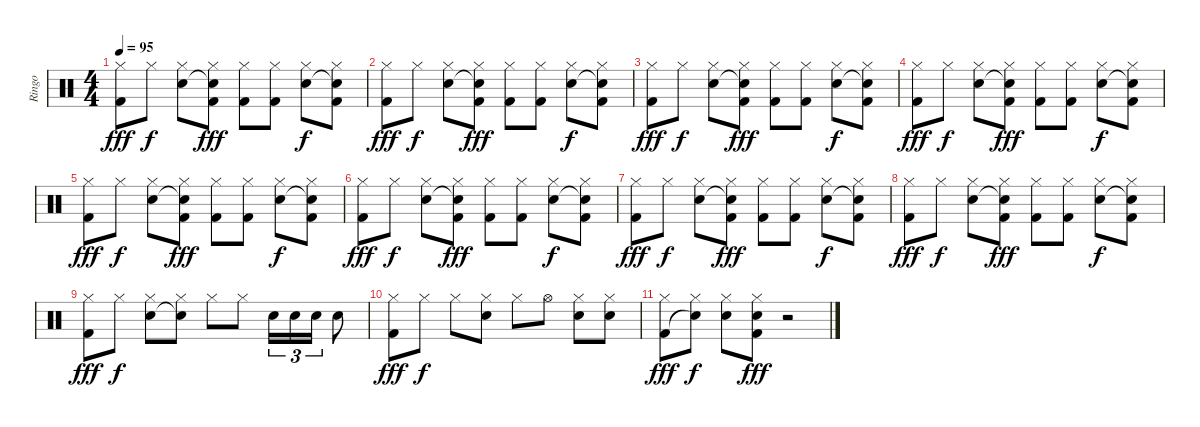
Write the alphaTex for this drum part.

\track ("Ringo" "Ringo") {instrument percussion}
\staff {score}
\articulation defaults
\ts (4 4)
\tempo 95
\clef neutral
\ks c
("Hi-Hat (closed)" "Kick (hit) 2").8{dy fff} "Hi-Hat (closed)".8{dy f} ("Hi-Hat (closed)" "Snare (hit) 2").8 ("Hi-Hat (closed)" "Snare (hit)"{t} "Kick (hit) 2").8{dy fff} ("Hi-Hat (closed)" "Kick (hit) 2").8 ("Hi-Hat (closed)" "Kick (hit) 2").8 ("Hi-Hat (closed)" "Snare (hit) 2").8{dy f} ("Hi-Hat (closed)" "Snare (hit)"{t} "Kick (hit) 2").8 |
("Hi-Hat (closed)" "Kick (hit) 2").8{dy fff} "Hi-Hat (closed)".8{dy f} ("Hi-Hat (closed)" "Snare (hit) 2").8 ("Hi-Hat (closed)" "Snare (hit)"{t} "Kick (hit) 2").8{dy fff} ("Hi-Hat (closed)" "Kick (hit) 2").8 ("Hi-Hat (closed)" "Kick (hit) 2").8 ("Hi-Hat (closed)" "Snare (hit) 2").8{dy f} ("Hi-Hat (closed)" "Snare (hit)"{t} "Kick (hit) 2").8 |
("Hi-Hat (closed)" "Kick (hit) 2").8{dy fff} "Hi-Hat (closed)".8{dy f} ("Hi-Hat (closed)" "Snare (hit) 2").8 ("Hi-Hat (closed)" "Snare (hit)"{t} "Kick (hit) 2").8{dy fff} ("Hi-Hat (closed)" "Kick (hit) 2").8 ("Hi-Hat (closed)" "Kick (hit) 2").8 ("Hi-Hat (closed)" "Snare (hit) 2").8{dy f} ("Hi-Hat (closed)" "Snare (hit)"{t} "Kick (hit) 2").8 |
("Hi-Hat (closed)" "Kick (hit) 2").8{dy fff} "Hi-Hat (closed)".8{dy f} ("Hi-Hat (closed)" "Snare (hit) 2").8 ("Hi-Hat (closed)" "Snare (hit)"{t} "Kick (hit) 2").8{dy fff} ("Hi-Hat (closed)" "Kick (hit) 2").8 ("Hi-Hat (closed)" "Kick (hit) 2").8 ("Hi-Hat (closed)" "Snare (hit) 2").8{dy f} ("Hi-Hat (closed)" "Snare (hit)"{t} "Kick (hit) 2").8 |
("Hi-Hat (closed)" "Kick (hit) 2").8{dy fff} "Hi-Hat (closed)".8{dy f} ("Hi-Hat (closed)" "Snare (hit) 2").8 ("Hi-Hat (closed)" "Snare (hit)"{t} "Kick (hit) 2").8{dy fff} ("Hi-Hat (closed)" "Kick (hit) 2").8 ("Hi-Hat (closed)" "Kick (hit) 2").8 ("Hi-Hat (closed)" "Snare (hit) 2").8{dy f} ("Hi-Hat (closed)" "Snare (hit)"{t} "Kick (hit) 2").8 |
("Hi-Hat (closed)" "Kick (hit) 2").8{dy fff} "Hi-Hat (closed)".8{dy f} ("Hi-Hat (closed)" "Snare (hit) 2").8 ("Hi-Hat (closed)" "Snare (hit)"{t} "Kick (hit) 2").8{dy fff} ("Hi-Hat (closed)" "Kick (hit) 2").8 ("Hi-Hat (closed)" "Kick (hit) 2").8 ("Hi-Hat (closed)" "Snare (hit) 2").8{dy f} ("Hi-Hat (closed)" "Snare (hit)"{t} "Kick (hit) 2").8 |
("Hi-Hat (closed)" "Kick (hit) 2").8{dy fff} "Hi-Hat (closed)".8{dy f} ("Hi-Hat (closed)" "Snare (hit) 2").8 ("Hi-Hat (closed)" "Snare (hit)"{t} "Kick (hit) 2").8{dy fff} ("Hi-Hat (closed)" "Kick (hit) 2").8 ("Hi-Hat (closed)" "Kick (hit) 2").8 ("Hi-Hat (closed)" "Snare (hit) 2").8{dy f} ("Hi-Hat (closed)" "Snare (hit)"{t} "Kick (hit) 2").8 |
("Hi-Hat (closed)" "Kick (hit) 2").8{dy fff} "Hi-Hat (closed)".8{dy f} ("Hi-Hat (closed)" "Snare (hit) 2").8 ("Hi-Hat (closed)" "Snare (hit)"{t} "Kick (hit) 2").8{dy fff} ("Hi-Hat (closed)" "Kick (hit) 2").8 ("Hi-Hat (closed)" "Kick (hit) 2").8 ("Hi-Hat (closed)" "Snare (hit) 2").8{dy f} ("Hi-Hat (closed)" "Snare (hit)"{t} "Kick (hit) 2").8 |
("Hi-Hat (closed)" "Kick (hit) 2").8{dy fff} "Hi-Hat (closed)".8{dy f} ("Hi-Hat (closed)" "Snare (hit) 2").8 ("Hi-Hat (closed)" "Snare (hit)"{t}).8 "Hi-Hat (closed)".8 "Hi-Hat (closed)".8 "Snare (hit) 2".16{tu (3 2)} "Snare (hit) 2".16{tu (3 2)} "Snare (hit) 2".16{tu (3 2)} "Snare (hit) 2".8 |
("Hi-Hat (closed)" "Kick (hit) 2").8{dy fff} "Hi-Hat (closed)".8{dy f} "Hi-Hat (closed)".8 ("Hi-Hat (closed)" "Snare (hit) 2").8 "Hi-Hat (closed)".8 "Hi-Hat (open)".8 ("Hi-Hat (closed)" "Snare (hit) 2").8 ("Hi-Hat (closed)" "Snare (hit) 2").8 |
("Hi-Hat (closed)" "Kick (hit) 2").8{dy fff} ("Hi-Hat (closed)" "Snare (hit)"{t}).8{dy f} ("Hi-Hat (closed)" "Snare (hit) 2").8 ("Hi-Hat (closed)" "Snare (hit) 2" "Kick (hit) 2").8{dy fff} r.2
